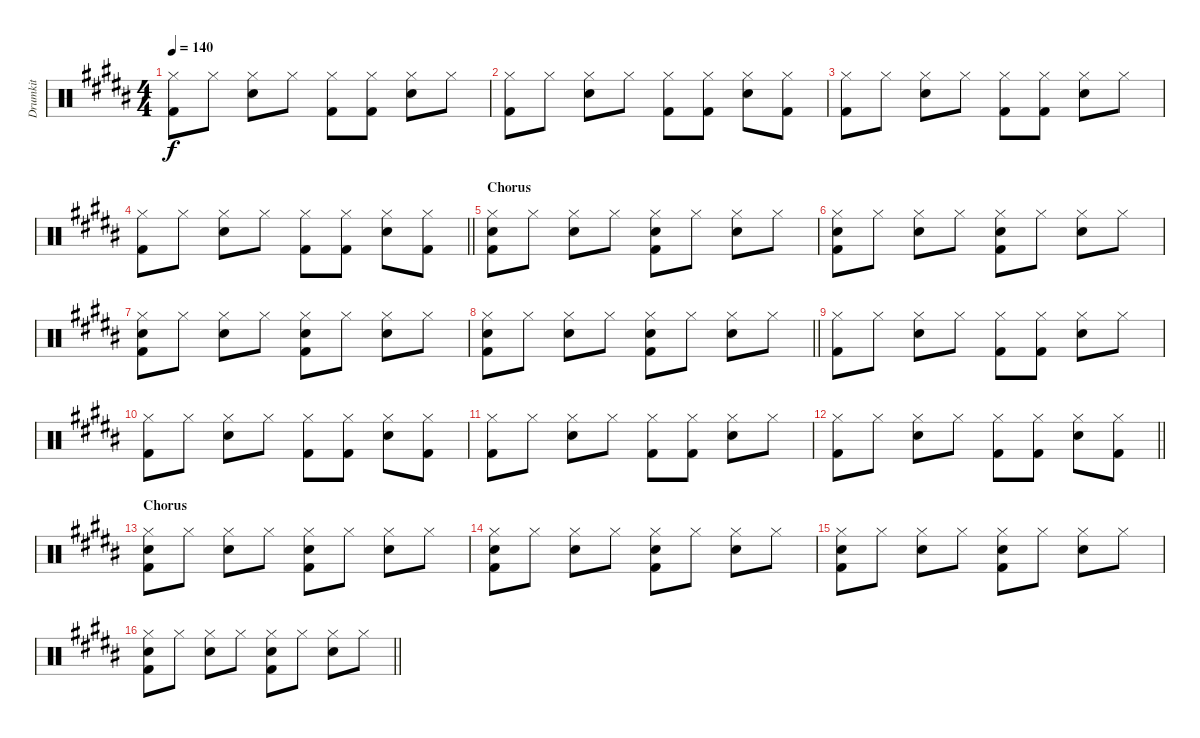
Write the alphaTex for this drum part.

\track ("Drumkit" "Drumkit") {instrument percussion}
\staff {score}
\articulation defaults
\ts (4 4)
\tempo 140
\clef neutral
\ks b
("Hi-Hat (closed)" "Kick (hit) 2").8{dy f} "Hi-Hat (closed)".8 ("Hi-Hat (closed)" "Snare (hit) 2").8 "Hi-Hat (closed)".8 ("Hi-Hat (closed)" "Kick (hit) 2").8 ("Hi-Hat (closed)" "Kick (hit) 2").8 ("Hi-Hat (closed)" "Snare (hit) 2").8 "Hi-Hat (closed)".8 |
("Hi-Hat (closed)" "Kick (hit) 2").8 "Hi-Hat (closed)".8 ("Hi-Hat (closed)" "Snare (hit) 2").8 "Hi-Hat (closed)".8 ("Hi-Hat (closed)" "Kick (hit) 2").8 ("Hi-Hat (closed)" "Kick (hit) 2").8 ("Hi-Hat (closed)" "Snare (hit) 2").8 ("Hi-Hat (closed)" "Kick (hit) 2").8 |
("Hi-Hat (closed)" "Kick (hit) 2").8 "Hi-Hat (closed)".8 ("Hi-Hat (closed)" "Snare (hit) 2").8 "Hi-Hat (closed)".8 ("Hi-Hat (closed)" "Kick (hit) 2").8 ("Hi-Hat (closed)" "Kick (hit) 2").8 ("Hi-Hat (closed)" "Snare (hit) 2").8 "Hi-Hat (closed)".8 |
\barLineRight lightlight
("Hi-Hat (closed)" "Kick (hit) 2").8 "Hi-Hat (closed)".8 ("Hi-Hat (closed)" "Snare (hit) 2").8 "Hi-Hat (closed)".8 ("Hi-Hat (closed)" "Kick (hit) 2").8 ("Hi-Hat (closed)" "Kick (hit) 2").8 ("Hi-Hat (closed)" "Snare (hit) 2").8 ("Hi-Hat (closed)" "Kick (hit) 2").8 |
\section ("" "Chorus")
("Hi-Hat (closed)" "Snare (hit) 2" "Kick (hit) 2").8 "Hi-Hat (closed)".8 ("Hi-Hat (closed)" "Snare (hit) 2").8 "Hi-Hat (closed)".8 ("Hi-Hat (closed)" "Snare (hit) 2" "Kick (hit) 2").8 "Hi-Hat (closed)".8 ("Hi-Hat (closed)" "Snare (hit) 2").8 "Hi-Hat (closed)".8 |
("Hi-Hat (closed)" "Snare (hit) 2" "Kick (hit) 2").8 "Hi-Hat (closed)".8 ("Hi-Hat (closed)" "Snare (hit) 2").8 "Hi-Hat (closed)".8 ("Hi-Hat (closed)" "Snare (hit) 2" "Kick (hit) 2").8 "Hi-Hat (closed)".8 ("Hi-Hat (closed)" "Snare (hit) 2").8 "Hi-Hat (closed)".8 |
("Hi-Hat (closed)" "Snare (hit) 2" "Kick (hit) 2").8 "Hi-Hat (closed)".8 ("Hi-Hat (closed)" "Snare (hit) 2").8 "Hi-Hat (closed)".8 ("Hi-Hat (closed)" "Snare (hit) 2" "Kick (hit) 2").8 "Hi-Hat (closed)".8 ("Hi-Hat (closed)" "Snare (hit) 2").8 "Hi-Hat (closed)".8 |
\barLineRight lightlight
("Hi-Hat (closed)" "Snare (hit) 2" "Kick (hit) 2").8 "Hi-Hat (closed)".8 ("Hi-Hat (closed)" "Snare (hit) 2").8 "Hi-Hat (closed)".8 ("Hi-Hat (closed)" "Snare (hit) 2" "Kick (hit) 2").8 "Hi-Hat (closed)".8 ("Hi-Hat (closed)" "Snare (hit) 2").8 "Hi-Hat (closed)".8 |
("Hi-Hat (closed)" "Kick (hit) 2").8 "Hi-Hat (closed)".8 ("Hi-Hat (closed)" "Snare (hit) 2").8 "Hi-Hat (closed)".8 ("Hi-Hat (closed)" "Kick (hit) 2").8 ("Hi-Hat (closed)" "Kick (hit) 2").8 ("Hi-Hat (closed)" "Snare (hit) 2").8 "Hi-Hat (closed)".8 |
("Hi-Hat (closed)" "Kick (hit) 2").8 "Hi-Hat (closed)".8 ("Hi-Hat (closed)" "Snare (hit) 2").8 "Hi-Hat (closed)".8 ("Hi-Hat (closed)" "Kick (hit) 2").8 ("Hi-Hat (closed)" "Kick (hit) 2").8 ("Hi-Hat (closed)" "Snare (hit) 2").8 ("Hi-Hat (closed)" "Kick (hit) 2").8 |
("Hi-Hat (closed)" "Kick (hit) 2").8 "Hi-Hat (closed)".8 ("Hi-Hat (closed)" "Snare (hit) 2").8 "Hi-Hat (closed)".8 ("Hi-Hat (closed)" "Kick (hit) 2").8 ("Hi-Hat (closed)" "Kick (hit) 2").8 ("Hi-Hat (closed)" "Snare (hit) 2").8 "Hi-Hat (closed)".8 |
\barLineRight lightlight
("Hi-Hat (closed)" "Kick (hit) 2").8 "Hi-Hat (closed)".8 ("Hi-Hat (closed)" "Snare (hit) 2").8 "Hi-Hat (closed)".8 ("Hi-Hat (closed)" "Kick (hit) 2").8 ("Hi-Hat (closed)" "Kick (hit) 2").8 ("Hi-Hat (closed)" "Snare (hit) 2").8 ("Hi-Hat (closed)" "Kick (hit) 2").8 |
\section ("" "Chorus")
("Hi-Hat (closed)" "Snare (hit) 2" "Kick (hit) 2").8 "Hi-Hat (closed)".8 ("Hi-Hat (closed)" "Snare (hit) 2").8 "Hi-Hat (closed)".8 ("Hi-Hat (closed)" "Snare (hit) 2" "Kick (hit) 2").8 "Hi-Hat (closed)".8 ("Hi-Hat (closed)" "Snare (hit) 2").8 "Hi-Hat (closed)".8 |
("Hi-Hat (closed)" "Snare (hit) 2" "Kick (hit) 2").8 "Hi-Hat (closed)".8 ("Hi-Hat (closed)" "Snare (hit) 2").8 "Hi-Hat (closed)".8 ("Hi-Hat (closed)" "Snare (hit) 2" "Kick (hit) 2").8 "Hi-Hat (closed)".8 ("Hi-Hat (closed)" "Snare (hit) 2").8 "Hi-Hat (closed)".8 |
("Hi-Hat (closed)" "Snare (hit) 2" "Kick (hit) 2").8 "Hi-Hat (closed)".8 ("Hi-Hat (closed)" "Snare (hit) 2").8 "Hi-Hat (closed)".8 ("Hi-Hat (closed)" "Snare (hit) 2" "Kick (hit) 2").8 "Hi-Hat (closed)".8 ("Hi-Hat (closed)" "Snare (hit) 2").8 "Hi-Hat (closed)".8 |
\barLineRight lightlight
("Hi-Hat (closed)" "Snare (hit) 2" "Kick (hit) 2").8 "Hi-Hat (closed)".8 ("Hi-Hat (closed)" "Snare (hit) 2").8 "Hi-Hat (closed)".8 ("Hi-Hat (closed)" "Snare (hit) 2" "Kick (hit) 2").8 "Hi-Hat (closed)".8 ("Hi-Hat (closed)" "Snare (hit) 2").8 "Hi-Hat (closed)".8
